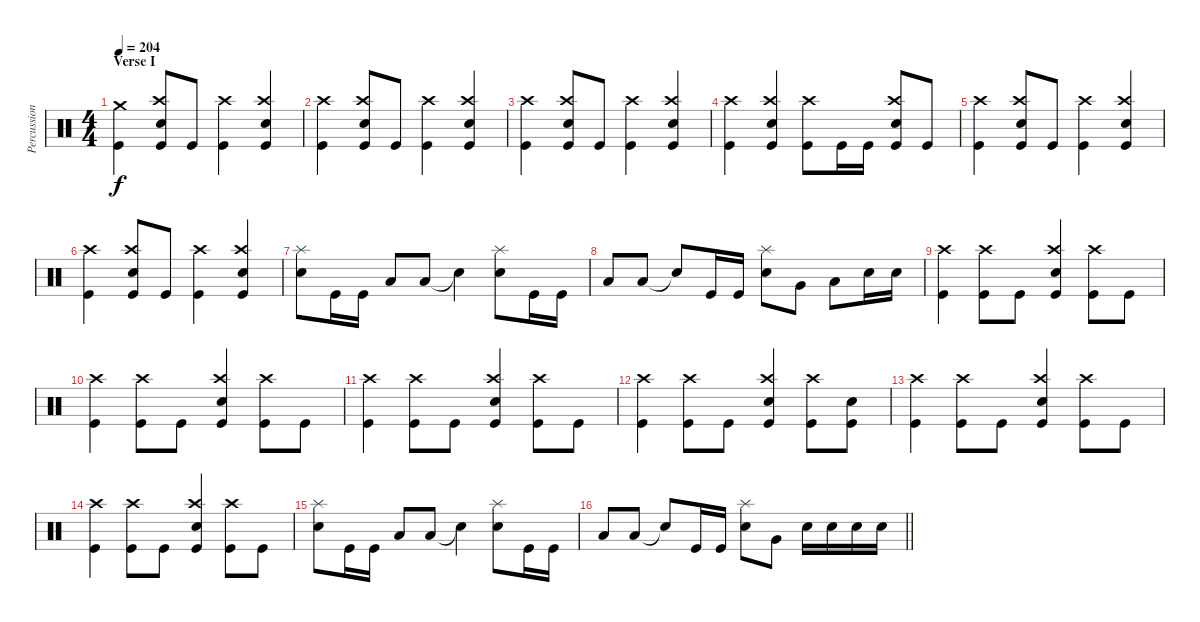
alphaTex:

\track ("Percussion" "Percussion") {instrument percussion}
\staff {score}
\articulation defaults
\ts (4 4)
\section ("" "Verse I")
\tempo 204
\clef neutral
\ks c
("Crash medium (hit)" "Kick (hit)").4{dy f} ("Crash high (hit)" "Electric Snare (hit)" "Kick (hit)").8 "Kick (hit)".8 ("Crash high (hit)" "Kick (hit)").4 ("Crash high (hit)" "Electric Snare (hit)" "Kick (hit)").4 |
("Crash high (hit)" "Kick (hit)").4 ("Crash high (hit)" "Electric Snare (hit)" "Kick (hit)").8 "Kick (hit)".8 ("Crash high (hit)" "Kick (hit)").4 ("Crash high (hit)" "Electric Snare (hit)" "Kick (hit)").4 |
("Crash high (hit)" "Kick (hit)").4 ("Crash high (hit)" "Electric Snare (hit)" "Kick (hit)").8 "Kick (hit)".8 ("Crash high (hit)" "Kick (hit)").4 ("Crash high (hit)" "Electric Snare (hit)" "Kick (hit)").4 |
("Crash high (hit)" "Kick (hit)").4 ("Crash high (hit)" "Electric Snare (hit)" "Kick (hit)").4 ("Crash high (hit)" "Kick (hit)").8 "Kick (hit)".16 "Kick (hit)".16 ("Crash high (hit)" "Electric Snare (hit)" "Kick (hit)").8 "Kick (hit)".8 |
("Crash high (hit)" "Kick (hit)").4 ("Crash high (hit)" "Electric Snare (hit)" "Kick (hit)").8 "Kick (hit)".8 ("Crash high (hit)" "Kick (hit)").4 ("Crash high (hit)" "Electric Snare (hit)" "Kick (hit)").4 |
("Crash high (hit)" "Kick (hit)").4 ("Crash high (hit)" "Electric Snare (hit)" "Kick (hit)").8 "Kick (hit)".8 ("Crash high (hit)" "Kick (hit)").4 ("Crash high (hit)" "Electric Snare (hit)" "Kick (hit)").4 |
("Splash (hit)" "Electric Snare (hit)").8 "Kick (hit)".16 "Kick (hit)".16 "Low Floor Tom (hit)".8 "Low Floor Tom (hit)".8 "Snare (hit)"{t}.4 ("Splash (hit)" "Electric Snare (hit)").8 "Kick (hit)".16 "Kick (hit)".16 |
"Low Floor Tom (hit)".8 "Low Floor Tom (hit)".8 "Snare (hit)"{t}.8 "Kick (hit)".16 "Kick (hit)".16 ("Splash (hit)" "Electric Snare (hit)").8 "Very Low Tom (hit)".8 "Low Floor Tom (hit)".8 "Electric Snare (hit)".16 "Electric Snare (hit)".16 |
("Crash high (hit)" "Kick (hit)").4 ("Crash high (hit)" "Kick (hit)").8 "Kick (hit)".8 ("Crash high (hit)" "Electric Snare (hit)" "Kick (hit)").4 ("Crash high (hit)" "Kick (hit)").8 "Kick (hit)".8 |
("Crash high (hit)" "Kick (hit)").4 ("Crash high (hit)" "Kick (hit)").8 "Kick (hit)".8 ("Crash high (hit)" "Electric Snare (hit)" "Kick (hit)").4 ("Crash high (hit)" "Kick (hit)").8 "Kick (hit)".8 |
("Crash high (hit)" "Kick (hit)").4 ("Crash high (hit)" "Kick (hit)").8 "Kick (hit)".8 ("Crash high (hit)" "Electric Snare (hit)" "Kick (hit)").4 ("Crash high (hit)" "Kick (hit)").8 "Kick (hit)".8 |
("Crash high (hit)" "Kick (hit)").4 ("Crash high (hit)" "Kick (hit)").8 "Kick (hit)".8 ("Crash high (hit)" "Electric Snare (hit)" "Kick (hit)").4 ("Crash high (hit)" "Kick (hit)").8 ("Electric Snare (hit)" "Kick (hit)").8 |
("Crash high (hit)" "Kick (hit)").4 ("Crash high (hit)" "Kick (hit)").8 "Kick (hit)".8 ("Crash high (hit)" "Electric Snare (hit)" "Kick (hit)").4 ("Crash high (hit)" "Kick (hit)").8 "Kick (hit)".8 |
("Crash high (hit)" "Kick (hit)").4 ("Crash high (hit)" "Kick (hit)").8 "Kick (hit)".8 ("Crash high (hit)" "Electric Snare (hit)" "Kick (hit)").4 ("Crash high (hit)" "Kick (hit)").8 "Kick (hit)".8 |
("Splash (hit)" "Electric Snare (hit)").8 "Kick (hit)".16 "Kick (hit)".16 "Low Floor Tom (hit)".8 "Low Floor Tom (hit)".8 "Snare (hit)"{t}.4 ("Splash (hit)" "Electric Snare (hit)").8 "Kick (hit)".16 "Kick (hit)".16 |
\barLineRight lightlight "Low Floor Tom (hit)".8 "Low Floor Tom (hit)".8 "Snare (hit)"{t}.8 "Kick (hit)".16 "Kick (hit)".16
("Splash (hit)" "Electric Snare (hit)").8 "Very Low Tom (hit)".8 "Electric Snare (hit)".16 "Electric Snare (hit)".16 "Electric Snare (hit)".16 "Electric Snare (hit)".16
